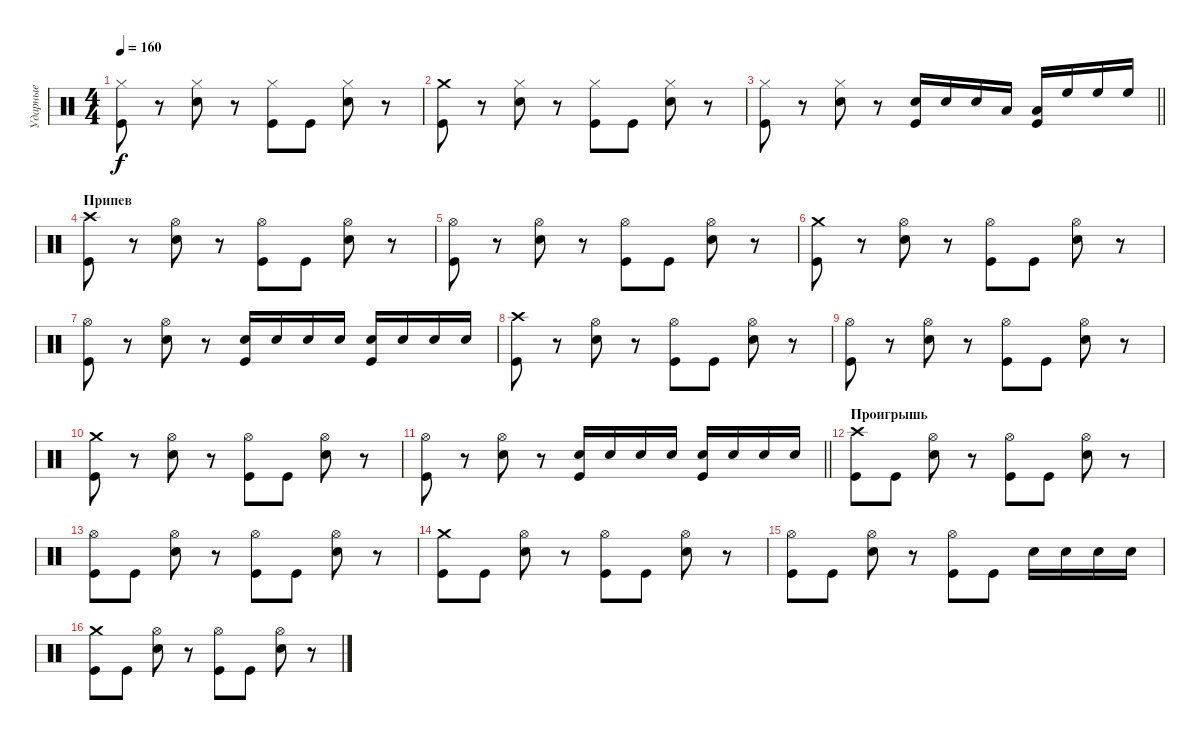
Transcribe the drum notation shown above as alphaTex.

\track ("Ударные" "Ударные") {instrument percussion}
\staff {score}
\articulation defaults
\ts (4 4)
\tempo 160
\clef neutral
\ks c
("Kick (hit)" "Hi-Hat (closed)").8{dy f} r.8 ("Snare (hit) 2" "Hi-Hat (closed)").8 r.8 ("Kick (hit)" "Hi-Hat (closed)").8 "Kick (hit)".8 ("Snare (hit) 2" "Hi-Hat (closed)").8 r.8 |
("Kick (hit)" "Crash medium (hit)").8 r.8 ("Snare (hit) 2" "Hi-Hat (closed)").8 r.8 ("Kick (hit)" "Hi-Hat (closed)").8 "Kick (hit)".8 ("Snare (hit) 2" "Hi-Hat (closed)").8 r.8 |
\barLineRight lightlight
("Kick (hit)" "Hi-Hat (closed)").8 r.8 ("Snare (hit) 2" "Hi-Hat (closed)").8 r.8 ("Snare (hit) 2" "Kick (hit)").16 "Snare (hit) 2".16 "Snare (hit) 2".16 "Low Tom (hit)".16 ("Low Tom (hit)" "Kick (hit)").16 "High Floor Tom (hit)".16 "High Floor Tom (hit)".16 "High Floor Tom (hit)".16 |
\section ("" "Припев")
("Kick (hit)" "Crash high (hit)").8 r.8 ("Snare (hit) 2" "Hi-Hat (open)").8 r.8 ("Kick (hit)" "Hi-Hat (open)").8 "Kick (hit)".8 ("Snare (hit) 2" "Hi-Hat (open)").8 r.8 |
("Kick (hit)" "Hi-Hat (open)").8 r.8 ("Snare (hit) 2" "Hi-Hat (open)").8 r.8 ("Kick (hit)" "Hi-Hat (open)").8 "Kick (hit)".8 ("Snare (hit) 2" "Hi-Hat (open)").8 r.8 |
("Kick (hit)" "Crash medium (hit)").8 r.8 ("Snare (hit) 2" "Hi-Hat (open)").8 r.8 ("Kick (hit)" "Hi-Hat (open)").8 "Kick (hit)".8 ("Snare (hit) 2" "Hi-Hat (open)").8 r.8 |
("Kick (hit)" "Hi-Hat (open)").8 r.8 ("Snare (hit) 2" "Hi-Hat (open)").8 r.8 ("Snare (hit) 2" "Kick (hit)").16 "Snare (hit) 2".16 "Snare (hit) 2".16 "Snare (hit) 2".16 ("Snare (hit) 2" "Kick (hit)").16 "Snare (hit) 2".16 "Snare (hit) 2".16 "Snare (hit) 2".16 |
("Kick (hit)" "Crash high (hit)").8 r.8 ("Snare (hit) 2" "Hi-Hat (open)").8 r.8 ("Kick (hit)" "Hi-Hat (open)").8 "Kick (hit)".8 ("Snare (hit) 2" "Hi-Hat (open)").8 r.8 |
("Kick (hit)" "Hi-Hat (open)").8 r.8 ("Snare (hit) 2" "Hi-Hat (open)").8 r.8 ("Kick (hit)" "Hi-Hat (open)").8 "Kick (hit)".8 ("Snare (hit) 2" "Hi-Hat (open)").8 r.8 |
("Kick (hit)" "Crash medium (hit)").8 r.8 ("Snare (hit) 2" "Hi-Hat (open)").8 r.8 ("Kick (hit)" "Hi-Hat (open)").8 "Kick (hit)".8 ("Snare (hit) 2" "Hi-Hat (open)").8 r.8 |
\barLineRight lightlight
("Kick (hit)" "Hi-Hat (open)").8 r.8 ("Snare (hit) 2" "Hi-Hat (open)").8 r.8 ("Snare (hit) 2" "Kick (hit)").16 "Snare (hit) 2".16 "Snare (hit) 2".16 "Snare (hit) 2".16 ("Snare (hit) 2" "Kick (hit)").16 "Snare (hit) 2".16 "Snare (hit) 2".16 "Snare (hit) 2".16 |
\section ("" "Проигрышь")
("Kick (hit)" "Crash high (hit)").8 "Kick (hit)".8 ("Snare (hit) 2" "Hi-Hat (open)").8 r.8 ("Kick (hit)" "Hi-Hat (open)").8 "Kick (hit)".8 ("Snare (hit) 2" "Hi-Hat (open)").8 r.8 |
("Kick (hit)" "Hi-Hat (open)").8 "Kick (hit)".8 ("Snare (hit) 2" "Hi-Hat (open)").8 r.8 ("Kick (hit)" "Hi-Hat (open)").8 "Kick (hit)".8 ("Snare (hit) 2" "Hi-Hat (open)").8 r.8 |
("Kick (hit)" "Crash medium (hit)").8 "Kick (hit)".8 ("Snare (hit) 2" "Hi-Hat (open)").8 r.8 ("Kick (hit)" "Hi-Hat (open)").8 "Kick (hit)".8 ("Snare (hit) 2" "Hi-Hat (open)").8 r.8 |
("Kick (hit)" "Hi-Hat (open)").8 "Kick (hit)".8 ("Snare (hit) 2" "Hi-Hat (open)").8 r.8 ("Kick (hit)" "Hi-Hat (open)").8 "Kick (hit)".8 "Snare (hit) 2".16 "Snare (hit) 2".16 "Snare (hit) 2".16 "Snare (hit) 2".16 |
("Kick (hit)" "Crash medium (hit)").8 "Kick (hit)".8 ("Snare (hit) 2" "Hi-Hat (open)").8 r.8 ("Kick (hit)" "Hi-Hat (open)").8 "Kick (hit)".8 ("Snare (hit) 2" "Hi-Hat (open)").8 r.8
